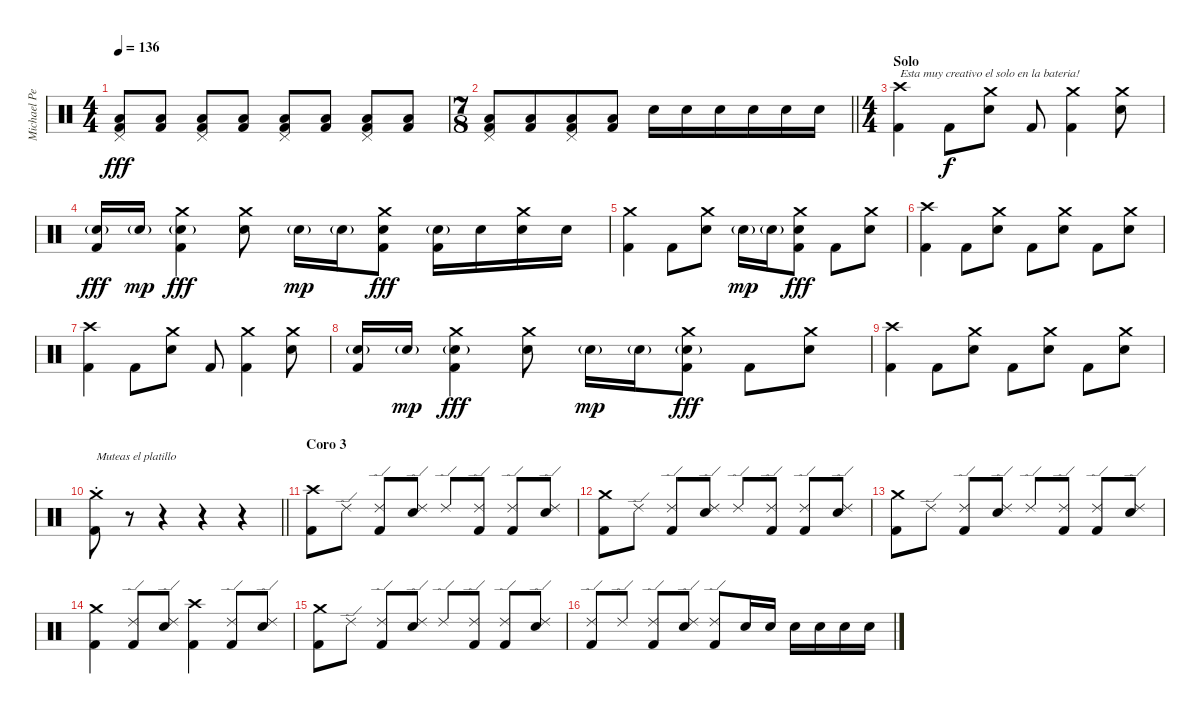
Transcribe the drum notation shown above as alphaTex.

\track ("Michael Pedicone [Drums]" "Michael Pe") {instrument percussion}
\staff
\articulation defaults
\ts (4 4)
\tempo 136
\clef neutral
\ks c
("Low Floor Tom (hit)" "Pedal Hi-Hat (hit)" "Kick (hit) 2").8{dy fff} ("Low Floor Tom (hit)" "Kick (hit) 2").8 ("Low Floor Tom (hit)" "Pedal Hi-Hat (hit)" "Kick (hit) 2").8 ("Low Floor Tom (hit)" "Kick (hit) 2").8 ("Low Floor Tom (hit)" "Pedal Hi-Hat (hit)" "Kick (hit) 2").8 ("Low Floor Tom (hit)" "Kick (hit) 2").8 ("Low Floor Tom (hit)" "Pedal Hi-Hat (hit)" "Kick (hit) 2").8 ("Low Floor Tom (hit)" "Kick (hit) 2").8 |
\ts (7 8)
\barLineRight lightlight
("Low Floor Tom (hit)" "Pedal Hi-Hat (hit)" "Kick (hit) 2").8 ("Low Floor Tom (hit)" "Kick (hit) 2").8 ("Low Floor Tom (hit)" "Pedal Hi-Hat (hit)" "Kick (hit) 2").8 ("Low Floor Tom (hit)" "Kick (hit) 2").8 "Electric Snare (hit)".16{volume 16} "Electric Snare (hit)".16 "Electric Snare (hit)".16 "Electric Snare (hit)".16 "Electric Snare (hit)".16 "Electric Snare (hit)".16 |
\ts (4 4)
\section ("" "Solo")
("Crash high (hit)" "Kick (hit) 2").4{txt "Esta muy creativo el solo en la bateria!"} "Kick (hit) 2".8{dy f} ("Crash medium (hit)" "Electric Snare (hit)").8 "Kick (hit) 2".8 ("Crash medium (hit)" "Kick (hit) 2").4 ("Crash medium (hit)" "Electric Snare (hit)").8 |
("Electric Snare (hit)"{g} "Kick (hit) 2").16{dy fff} "Electric Snare (hit)"{g}.16{dy mp} ("Crash medium (hit)" "Electric Snare (hit)"{g} "Kick (hit) 2").4{dy fff} ("Crash medium (hit)" "Electric Snare (hit)").8 "Electric Snare (hit)"{g}.16{dy mp} "Electric Snare (hit)"{g}.16 ("Crash medium (hit)" "Electric Snare (hit)" "Kick (hit) 2").8{dy fff} ("Electric Snare (hit)"{g} "Kick (hit) 2").16 "Electric Snare (hit)".16 ("Crash medium (hit)" "Electric Snare (hit)").16 "Electric Snare (hit)".16 |
("Crash medium (hit)" "Kick (hit) 2").4 "Kick (hit) 2".8 ("Crash medium (hit)" "Electric Snare (hit)").8 "Electric Snare (hit)"{g}.16{dy mp} "Electric Snare (hit)"{g}.16 ("Crash medium (hit)" "Electric Snare (hit)" "Kick (hit) 2").8{dy fff} "Kick (hit) 2".8 ("Crash medium (hit)" "Electric Snare (hit)").8 |
("Crash high (hit)" "Kick (hit) 2").4 "Kick (hit) 2".8 ("Crash medium (hit)" "Electric Snare (hit)").8 "Kick (hit) 2".8 ("Crash medium (hit)" "Electric Snare (hit)").8 "Kick (hit) 2".8 ("Crash medium (hit)" "Electric Snare (hit)").8 |
("Crash high (hit)" "Kick (hit) 2").4 "Kick (hit) 2".8 ("Crash medium (hit)" "Electric Snare (hit)").8 "Kick (hit) 2".8 ("Crash medium (hit)" "Kick (hit) 2").4 ("Crash medium (hit)" "Electric Snare (hit)").8 |
("Electric Snare (hit)"{g} "Kick (hit) 2").16 "Electric Snare (hit)"{g}.16{dy mp} ("Crash medium (hit)" "Electric Snare (hit)"{g} "Kick (hit) 2").4{dy fff} ("Crash medium (hit)" "Electric Snare (hit)").8 "Electric Snare (hit)"{g}.16{dy mp} "Electric Snare (hit)"{g}.16 ("Crash medium (hit)" "Electric Snare (hit)"{g} "Kick (hit) 2").8{dy fff} "Kick (hit) 2".8 ("Crash medium (hit)" "Electric Snare (hit)").8 |
("Crash high (hit)" "Kick (hit) 2").4 "Kick (hit) 2".8 ("Crash medium (hit)" "Electric Snare (hit)").8 "Kick (hit) 2".8 ("Crash medium (hit)" "Electric Snare (hit)").8 "Kick (hit) 2".8 ("Crash medium (hit)" "Electric Snare (hit)").8 |
\barLineRight lightlight
("Crash medium (hit)"{st} "Kick (hit) 2").8{txt "Muteas el platillo"} r.8{volume 0} r.4 r.4 r.4 |
\section ("" "Coro 3")
("Crash high (hit)" "Kick (hit) 2").8{volume 16} "Ride (edge) 2".8 ("Ride (edge) 2" "Kick (hit) 2").8 ("Ride (edge) 2" "Electric Snare (hit)").8 "Ride (edge) 2".8 ("Ride (edge) 2" "Kick (hit) 2").8 ("Ride (edge) 2" "Kick (hit) 2").8 ("Ride (edge) 2" "Electric Snare (hit)").8 |
("Crash medium (hit)" "Kick (hit) 2").8 "Ride (edge) 2".8 ("Ride (edge) 2" "Kick (hit) 2").8 ("Ride (edge) 2" "Electric Snare (hit)").8 "Ride (edge) 2".8 ("Ride (edge) 2" "Kick (hit) 2").8 ("Ride (edge) 2" "Kick (hit) 2").8 ("Ride (edge) 2" "Electric Snare (hit)").8 |
("Crash medium (hit)" "Kick (hit) 2").8 "Ride (edge) 2".8 ("Ride (edge) 2" "Kick (hit) 2").8 ("Ride (edge) 2" "Electric Snare (hit)").8 "Ride (edge) 2".8 ("Ride (edge) 2" "Kick (hit) 2").8 ("Ride (edge) 2" "Kick (hit) 2").8 ("Ride (edge) 2" "Electric Snare (hit)").8 |
("Crash medium (hit)" "Kick (hit) 2").4 ("Ride (edge) 2" "Kick (hit) 2").8 ("Ride (edge) 2" "Electric Snare (hit)").8 ("Crash high (hit)" "Kick (hit) 2").4 ("Ride (edge) 2" "Kick (hit) 2").8 ("Ride (edge) 2" "Electric Snare (hit)").8 |
("Crash medium (hit)" "Kick (hit) 2").8 "Ride (edge) 2".8 ("Ride (edge) 2" "Kick (hit) 2").8 ("Ride (edge) 2" "Electric Snare (hit)").8 "Ride (edge) 2".8 ("Ride (edge) 2" "Kick (hit) 2").8 ("Ride (edge) 2" "Kick (hit) 2").8 ("Ride (edge) 2" "Electric Snare (hit)").8 |
("Ride (edge) 2" "Kick (hit) 2").8 "Ride (edge) 2".8 ("Ride (edge) 2" "Kick (hit) 2").8 ("Ride (edge) 2" "Electric Snare (hit)").8 ("Ride (edge) 2" "Kick (hit) 2").8 "Electric Snare (hit)".16 "Electric Snare (hit)".16 "Electric Snare (hit)".16 "Electric Snare (hit)".16 "Electric Snare (hit)".16 "Electric Snare (hit)".16
